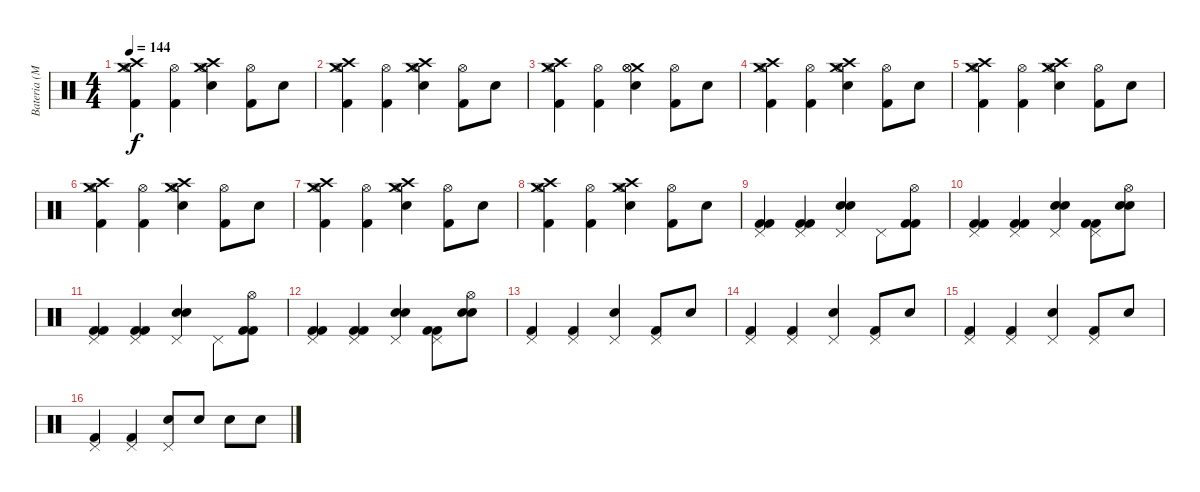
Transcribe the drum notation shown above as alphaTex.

\track ("Bateria (Matt)" "Bateria (M") {instrument percussion}
\staff {score}
\articulation defaults
\ts (4 4)
\tempo 144
\clef neutral
\ks c
("Crash medium (hit)" "Crash high (hit)" "Hi-Hat (open)" "Kick (hit) 2").4{dy f} ("Hi-Hat (open)" "Kick (hit) 2").4 ("Crash medium (hit)" "Crash high (hit)" "Hi-Hat (open)" "Snare (hit) 2").4 ("Hi-Hat (open)" "Kick (hit) 2").8 "Snare (hit) 2".8 |
("Crash medium (hit)" "Crash high (hit)" "Hi-Hat (open)" "Kick (hit) 2").4 ("Hi-Hat (open)" "Kick (hit) 2").4 ("Crash medium (hit)" "Crash high (hit)" "Hi-Hat (open)" "Snare (hit) 2").4 ("Hi-Hat (open)" "Kick (hit) 2").8 "Snare (hit) 2".8 |
("Crash medium (hit)" "Crash high (hit)" "Hi-Hat (open)" "Kick (hit) 2").4 ("Hi-Hat (open)" "Kick (hit) 2").4 ("Crash medium (hit)" "Hi-Hat (open)" "Hi-Hat (open)" "Snare (hit) 2").4 ("Hi-Hat (open)" "Kick (hit) 2").8 "Snare (hit) 2".8 |
("Crash medium (hit)" "Crash high (hit)" "Hi-Hat (open)" "Kick (hit) 2").4 ("Hi-Hat (open)" "Kick (hit) 2").4 ("Crash medium (hit)" "Crash high (hit)" "Hi-Hat (open)" "Snare (hit) 2").4 ("Hi-Hat (open)" "Kick (hit) 2").8 "Snare (hit) 2".8 |
("Crash medium (hit)" "Crash high (hit)" "Hi-Hat (open)" "Kick (hit) 2").4 ("Hi-Hat (open)" "Kick (hit) 2").4 ("Crash medium (hit)" "Crash high (hit)" "Hi-Hat (open)" "Snare (hit) 2").4 ("Hi-Hat (open)" "Kick (hit) 2").8 "Snare (hit) 2".8 |
("Crash medium (hit)" "Crash high (hit)" "Hi-Hat (open)" "Kick (hit) 2").4 ("Hi-Hat (open)" "Kick (hit) 2").4 ("Crash medium (hit)" "Crash high (hit)" "Hi-Hat (open)" "Snare (hit) 2").4 ("Hi-Hat (open)" "Kick (hit) 2").8 "Snare (hit) 2".8 |
("Crash medium (hit)" "Crash high (hit)" "Hi-Hat (open)" "Kick (hit) 2").4 ("Hi-Hat (open)" "Kick (hit) 2").4 ("Crash medium (hit)" "Crash high (hit)" "Hi-Hat (open)" "Snare (hit) 2").4 ("Hi-Hat (open)" "Kick (hit) 2").8 "Snare (hit) 2".8 |
("Crash medium (hit)" "Crash high (hit)" "Hi-Hat (open)" "Kick (hit) 2").4 ("Hi-Hat (open)" "Kick (hit) 2").4 ("Crash medium (hit)" "Crash high (hit)" "Hi-Hat (open)" "Snare (hit) 2").4 ("Hi-Hat (open)" "Kick (hit) 2").8 "Snare (hit) 2".8 |
("Pedal Hi-Hat (hit)" "Kick (hit) 2" "Kick (hit) 2").4 ("Pedal Hi-Hat (hit)" "Kick (hit) 2" "Kick (hit) 2").4 ("Pedal Hi-Hat (hit)" "Electric Snare (hit)" "Electric Snare (hit)").4 "Pedal Hi-Hat (hit)".8 ("Hi-Hat (open)" "Kick (hit) 2" "Kick (hit) 2").8 |
("Pedal Hi-Hat (hit)" "Kick (hit) 2" "Kick (hit) 2").4 ("Pedal Hi-Hat (hit)" "Kick (hit) 2" "Kick (hit) 2").4 ("Pedal Hi-Hat (hit)" "Electric Snare (hit)" "Electric Snare (hit)").4 ("Pedal Hi-Hat (hit)" "Kick (hit) 2" "Kick (hit) 2").8 ("Hi-Hat (open)" "Electric Snare (hit)" "Electric Snare (hit)").8 |
("Pedal Hi-Hat (hit)" "Kick (hit) 2" "Kick (hit) 2").4 ("Pedal Hi-Hat (hit)" "Kick (hit) 2" "Kick (hit) 2").4 ("Pedal Hi-Hat (hit)" "Electric Snare (hit)" "Electric Snare (hit)").4 "Pedal Hi-Hat (hit)".8 ("Hi-Hat (open)" "Kick (hit) 2" "Kick (hit) 2").8 |
("Pedal Hi-Hat (hit)" "Kick (hit) 2" "Kick (hit) 2").4 ("Pedal Hi-Hat (hit)" "Kick (hit) 2" "Kick (hit) 2").4 ("Pedal Hi-Hat (hit)" "Electric Snare (hit)" "Electric Snare (hit)").4 ("Pedal Hi-Hat (hit)" "Kick (hit) 2" "Kick (hit) 2").8 ("Hi-Hat (open)" "Electric Snare (hit)" "Electric Snare (hit)").8 |
("Pedal Hi-Hat (hit)" "Kick (hit) 2").4 ("Pedal Hi-Hat (hit)" "Kick (hit) 2").4 ("Pedal Hi-Hat (hit)" "Snare (hit) 2").4 ("Pedal Hi-Hat (hit)" "Kick (hit) 2").8 "Snare (hit) 2".8 |
("Pedal Hi-Hat (hit)" "Kick (hit) 2").4 ("Pedal Hi-Hat (hit)" "Kick (hit) 2").4 ("Pedal Hi-Hat (hit)" "Snare (hit) 2").4 ("Pedal Hi-Hat (hit)" "Kick (hit) 2").8 "Snare (hit) 2".8 |
("Pedal Hi-Hat (hit)" "Kick (hit) 2").4 ("Pedal Hi-Hat (hit)" "Kick (hit) 2").4 ("Pedal Hi-Hat (hit)" "Snare (hit) 2").4 ("Pedal Hi-Hat (hit)" "Kick (hit) 2").8 "Snare (hit) 2".8 |
("Pedal Hi-Hat (hit)" "Kick (hit) 2").4 ("Pedal Hi-Hat (hit)" "Kick (hit) 2").4 ("Pedal Hi-Hat (hit)" "Snare (hit) 2").8 "Snare (hit) 2".8 "Snare (hit) 2".8 "Snare (hit) 2".8
